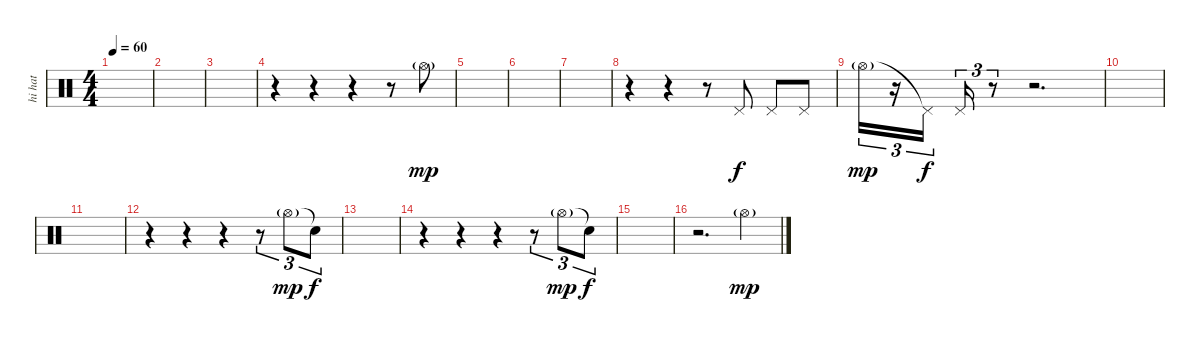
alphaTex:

\track ("hi hat" "hi hat") {instrument percussion}
\staff {score}
\articulation defaults
\ts (4 4)
\tempo 60
\clef neutral
\ks c
|
|
|
r.4 r.4 r.4 r.8 "Hi-Hat (open)"{g}.8{dy mp} |
|
|
|
r.4 r.4 r.8 "Pedal Hi-Hat (hit)".8{dy f} "Pedal Hi-Hat (hit)".8 "Pedal Hi-Hat (hit)".8 |
"Hi-Hat (open)"{g}.16{tu (3 2) dy mp} r.16{tu (3 2)} "Pedal Hi-Hat (hit)"{t}.16{tu (3 2) dy f} "Pedal Hi-Hat (hit)".16{tu (3 2)} r.8{tu (3 2)} r.2{d} |
|
|
r.4 r.4 r.4 r.8{tu (3 2)} "Hi-Hat (open)"{g}.8{tu (3 2) dy mp} "Snare (hit)"{t}.8{tu (3 2) dy f} |
|
r.4 r.4 r.4 r.8{tu (3 2)} "Hi-Hat (open)"{g}.8{tu (3 2) dy mp} "Snare (hit)"{t}.8{tu (3 2) dy f} |
|
r.2{d} "Hi-Hat (open)"{g}.4{dy mp}
